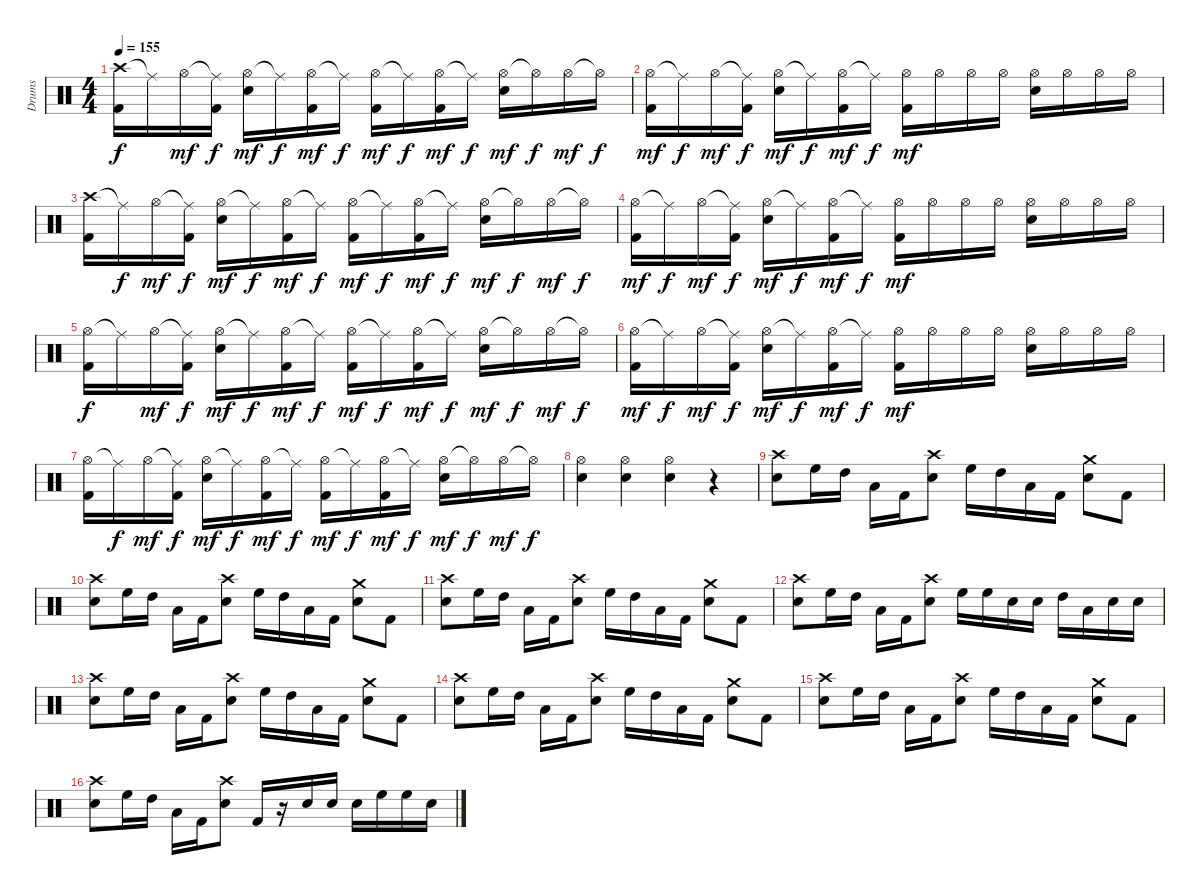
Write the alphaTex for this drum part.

\track ("Drums" "Drums") {instrument percussion}
\staff {score}
\articulation defaults
\ts (4 4)
\tempo 155
\clef neutral
\ks c
("Crash high (hit)" "Kick (hit) 2").16{dy f} "Ride (middle)"{t}.16 "Hi-Hat (open)".16{dy mf} ("Ride (middle)"{t} "Kick (hit) 2").16{dy f} ("Hi-Hat (open)" "Electric Snare (hit)").16{dy mf} "Ride (middle)"{t}.16{dy f} ("Hi-Hat (open)" "Kick (hit) 2").16{dy mf} "Ride (middle)"{t}.16{dy f} ("Hi-Hat (open)" "Kick (hit) 2").16{dy mf} "Ride (middle)"{t}.16{dy f} ("Hi-Hat (open)" "Kick (hit) 2").16{dy mf} "Ride (middle)"{t}.16{dy f} ("Hi-Hat (open)" "Electric Snare (hit)").16{dy mf} "Hi-Hat (open)"{t}.16{dy f} "Hi-Hat (open)".16{dy mf} "Hi-Hat (open)"{t}.16{dy f} |
("Hi-Hat (open)" "Kick (hit) 2").16{dy mf} "Ride (middle)"{t}.16{dy f} "Hi-Hat (open)".16{dy mf} ("Ride (middle)"{t} "Kick (hit) 2").16{dy f} ("Hi-Hat (open)" "Electric Snare (hit)").16{dy mf} "Ride (middle)"{t}.16{dy f} ("Hi-Hat (open)" "Kick (hit) 2").16{dy mf} "Ride (middle)"{t}.16{dy f} ("Hi-Hat (open)" "Kick (hit) 2").16{dy mf} "Hi-Hat (open)".16 "Hi-Hat (open)".16 "Hi-Hat (open)".16 ("Hi-Hat (open)" "Electric Snare (hit)").16 "Hi-Hat (open)".16 "Hi-Hat (open)".16 "Hi-Hat (open)".16 |
("Crash high (hit)" "Kick (hit) 2").16 "Ride (middle)"{t}.16{dy f} "Hi-Hat (open)".16{dy mf} ("Ride (middle)"{t} "Kick (hit) 2").16{dy f} ("Hi-Hat (open)" "Electric Snare (hit)").16{dy mf} "Ride (middle)"{t}.16{dy f} ("Hi-Hat (open)" "Kick (hit) 2").16{dy mf} "Ride (middle)"{t}.16{dy f} ("Hi-Hat (open)" "Kick (hit) 2").16{dy mf} "Ride (middle)"{t}.16{dy f} ("Hi-Hat (open)" "Kick (hit) 2").16{dy mf} "Ride (middle)"{t}.16{dy f} ("Hi-Hat (open)" "Electric Snare (hit)").16{dy mf} "Hi-Hat (open)"{t}.16{dy f} "Hi-Hat (open)".16{dy mf} "Hi-Hat (open)"{t}.16{dy f} |
("Hi-Hat (open)" "Kick (hit) 2").16{dy mf} "Ride (middle)"{t}.16{dy f} "Hi-Hat (open)".16{dy mf} ("Ride (middle)"{t} "Kick (hit) 2").16{dy f} ("Hi-Hat (open)" "Electric Snare (hit)").16{dy mf} "Ride (middle)"{t}.16{dy f} ("Hi-Hat (open)" "Kick (hit) 2").16{dy mf} "Ride (middle)"{t}.16{dy f} ("Hi-Hat (open)" "Kick (hit) 2").16{dy mf} "Hi-Hat (open)".16 "Hi-Hat (open)".16 "Hi-Hat (open)".16 ("Hi-Hat (open)" "Electric Snare (hit)").16 "Hi-Hat (open)".16 "Hi-Hat (open)".16 "Hi-Hat (open)".16 |
("Hi-Hat (open)" "Kick (hit) 2").16{dy f} "Ride (middle)"{t}.16 "Hi-Hat (open)".16{dy mf} ("Ride (middle)"{t} "Kick (hit) 2").16{dy f} ("Hi-Hat (open)" "Electric Snare (hit)").16{dy mf} "Ride (middle)"{t}.16{dy f} ("Hi-Hat (open)" "Kick (hit) 2").16{dy mf} "Ride (middle)"{t}.16{dy f} ("Hi-Hat (open)" "Kick (hit) 2").16{dy mf} "Ride (middle)"{t}.16{dy f} ("Hi-Hat (open)" "Kick (hit) 2").16{dy mf} "Ride (middle)"{t}.16{dy f} ("Hi-Hat (open)" "Electric Snare (hit)").16{dy mf} "Hi-Hat (open)"{t}.16{dy f} "Hi-Hat (open)".16{dy mf} "Hi-Hat (open)"{t}.16{dy f} |
("Hi-Hat (open)" "Kick (hit) 2").16{dy mf} "Ride (middle)"{t}.16{dy f} "Hi-Hat (open)".16{dy mf} ("Ride (middle)"{t} "Kick (hit) 2").16{dy f} ("Hi-Hat (open)" "Electric Snare (hit)").16{dy mf} "Ride (middle)"{t}.16{dy f} ("Hi-Hat (open)" "Kick (hit) 2").16{dy mf} "Ride (middle)"{t}.16{dy f} ("Hi-Hat (open)" "Kick (hit) 2").16{dy mf} "Hi-Hat (open)".16 "Hi-Hat (open)".16 "Hi-Hat (open)".16 ("Hi-Hat (open)" "Electric Snare (hit)").16 "Hi-Hat (open)".16 "Hi-Hat (open)".16 "Hi-Hat (open)".16 |
("Hi-Hat (open)" "Kick (hit) 2").16 "Ride (middle)"{t}.16{dy f} "Hi-Hat (open)".16{dy mf} ("Ride (middle)"{t} "Kick (hit) 2").16{dy f} ("Hi-Hat (open)" "Electric Snare (hit)").16{dy mf} "Ride (middle)"{t}.16{dy f} ("Hi-Hat (open)" "Kick (hit) 2").16{dy mf} "Ride (middle)"{t}.16{dy f} ("Hi-Hat (open)" "Kick (hit) 2").16{dy mf} "Ride (middle)"{t}.16{dy f} ("Hi-Hat (open)" "Kick (hit) 2").16{dy mf} "Ride (middle)"{t}.16{dy f} ("Hi-Hat (open)" "Electric Snare (hit)").16{dy mf} "Hi-Hat (open)"{t}.16{dy f} "Hi-Hat (open)".16{dy mf} "Hi-Hat (open)"{t}.16{dy f} |
("Hi-Hat (open)" "Electric Snare (hit)").4 ("Hi-Hat (open)" "Electric Snare (hit)").4 ("Hi-Hat (open)" "Electric Snare (hit)").4 r.4 |
("Crash high (hit)" "Electric Snare (hit)").8 "High Floor Tom (hit)".16 "High Tom (hit)".16 "Low Floor Tom (hit)".16 "Kick (hit) 2".16 ("Crash high (hit)" "Electric Snare (hit)").8 "High Floor Tom (hit)".16 "High Tom (hit)".16 "Low Floor Tom (hit)".16 "Kick (hit) 2".16 ("Crash medium (hit)" "Electric Snare (hit)").8 "Kick (hit) 2".8 |
("Crash high (hit)" "Electric Snare (hit)").8 "High Floor Tom (hit)".16 "High Tom (hit)".16 "Low Floor Tom (hit)".16 "Kick (hit) 2".16 ("Crash high (hit)" "Electric Snare (hit)").8 "High Floor Tom (hit)".16 "High Tom (hit)".16 "Low Floor Tom (hit)".16 "Kick (hit) 2".16 ("Crash medium (hit)" "Electric Snare (hit)").8 "Kick (hit) 2".8 |
("Crash high (hit)" "Electric Snare (hit)").8 "High Floor Tom (hit)".16 "High Tom (hit)".16 "Low Floor Tom (hit)".16 "Kick (hit) 2".16 ("Crash high (hit)" "Electric Snare (hit)").8 "High Floor Tom (hit)".16 "High Tom (hit)".16 "Low Floor Tom (hit)".16 "Kick (hit) 2".16 ("Crash medium (hit)" "Electric Snare (hit)").8 "Kick (hit) 2".8 |
("Crash high (hit)" "Electric Snare (hit)").8 "High Floor Tom (hit)".16 "High Tom (hit)".16 "Low Floor Tom (hit)".16 "Kick (hit) 2".16 ("Crash high (hit)" "Electric Snare (hit)").8 "High Floor Tom (hit)".16 "High Floor Tom (hit)".16 "Electric Snare (hit)".16 "Electric Snare (hit)".16 "High Tom (hit)".16 "Low Floor Tom (hit)".16 "Electric Snare (hit)".16 "Electric Snare (hit)".16 |
("Crash high (hit)" "Electric Snare (hit)").8 "High Floor Tom (hit)".16 "High Tom (hit)".16 "Low Floor Tom (hit)".16 "Kick (hit) 2".16 ("Crash high (hit)" "Electric Snare (hit)").8 "High Floor Tom (hit)".16 "High Tom (hit)".16 "Low Floor Tom (hit)".16 "Kick (hit) 2".16 ("Crash medium (hit)" "Electric Snare (hit)").8 "Kick (hit) 2".8 |
("Crash high (hit)" "Electric Snare (hit)").8 "High Floor Tom (hit)".16 "High Tom (hit)".16 "Low Floor Tom (hit)".16 "Kick (hit) 2".16 ("Crash high (hit)" "Electric Snare (hit)").8 "High Floor Tom (hit)".16 "High Tom (hit)".16 "Low Floor Tom (hit)".16 "Kick (hit) 2".16 ("Crash medium (hit)" "Electric Snare (hit)").8 "Kick (hit) 2".8 |
("Crash high (hit)" "Electric Snare (hit)").8 "High Floor Tom (hit)".16 "High Tom (hit)".16 "Low Floor Tom (hit)".16 "Kick (hit) 2".16 ("Crash high (hit)" "Electric Snare (hit)").8 "High Floor Tom (hit)".16 "High Tom (hit)".16 "Low Floor Tom (hit)".16 "Kick (hit) 2".16 ("Crash medium (hit)" "Electric Snare (hit)").8 "Kick (hit) 2".8 |
("Crash high (hit)" "Electric Snare (hit)").8 "High Floor Tom (hit)".16 "High Tom (hit)".16 "Low Floor Tom (hit)".16 "Kick (hit) 2".16 ("Crash high (hit)" "Electric Snare (hit)").8 "Kick (hit) 2".16 r.16 "Electric Snare (hit)".16 "Electric Snare (hit)".16 "Electric Snare (hit)".16 "High Floor Tom (hit)".16 "High Floor Tom (hit)".16 "Electric Snare (hit)".16
